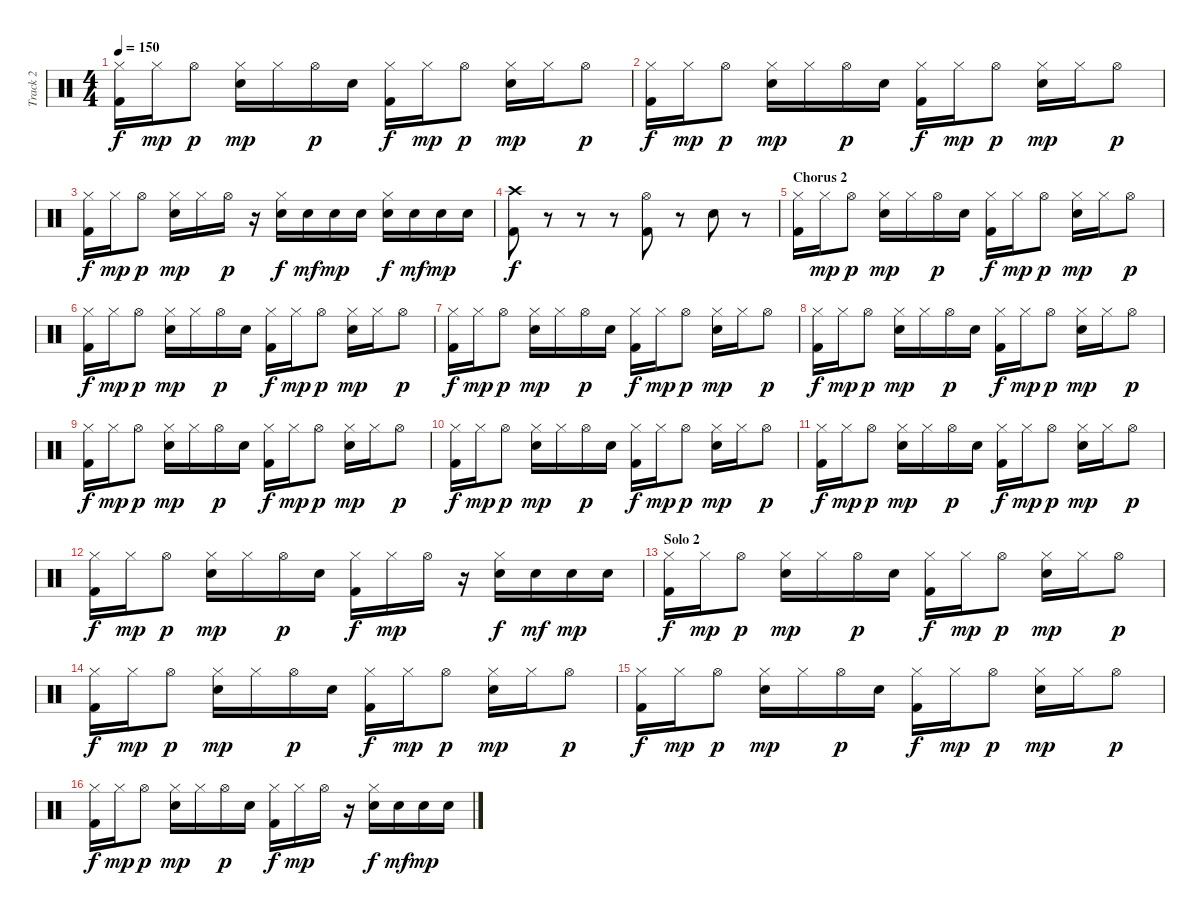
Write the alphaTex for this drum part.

\track ("Track 2" "Track 2") {instrument percussion}
\staff {score}
\articulation defaults
\ts (4 4)
\tempo 150
\clef neutral
\ks c
("Hi-Hat (closed)" "Kick (hit) 2").16{dy f} "Hi-Hat (closed)".16{dy mp} "Hi-Hat (open)".8{dy p} ("Hi-Hat (closed)" "Electric Snare (hit)").16{dy mp} "Hi-Hat (closed)".16 "Hi-Hat (open)".16{dy p} "Electric Snare (hit)".16 ("Hi-Hat (closed)" "Kick (hit) 2").16{dy f} "Hi-Hat (closed)".16{dy mp} "Hi-Hat (open)".8{dy p} ("Hi-Hat (closed)" "Electric Snare (hit)").16{dy mp} "Hi-Hat (closed)".16 "Hi-Hat (open)".8{dy p} |
("Hi-Hat (closed)" "Kick (hit) 2").16{dy f} "Hi-Hat (closed)".16{dy mp} "Hi-Hat (open)".8{dy p} ("Hi-Hat (closed)" "Electric Snare (hit)").16{dy mp} "Hi-Hat (closed)".16 "Hi-Hat (open)".16{dy p} "Electric Snare (hit)".16 ("Hi-Hat (closed)" "Kick (hit) 2").16{dy f} "Hi-Hat (closed)".16{dy mp} "Hi-Hat (open)".8{dy p} ("Hi-Hat (closed)" "Electric Snare (hit)").16{dy mp} "Hi-Hat (closed)".16 "Hi-Hat (open)".8{dy p} |
("Hi-Hat (closed)" "Kick (hit) 2").16{dy f} "Hi-Hat (closed)".16{dy mp} "Hi-Hat (open)".8{dy p} ("Hi-Hat (closed)" "Electric Snare (hit)").16{dy mp} "Hi-Hat (closed)".16 "Hi-Hat (open)".16{dy p} r.16 ("Hi-Hat (closed)" "Electric Snare (hit)").16{dy f} "Electric Snare (hit)".16{dy mf} "Electric Snare (hit)".16{dy mp} "Electric Snare (hit)".16 ("Hi-Hat (closed)" "Electric Snare (hit)").16{dy f} "Electric Snare (hit)".16{dy mf} "Electric Snare (hit)".16{dy mp} "Electric Snare (hit)".16 |
("Crash high (hit)" "Kick (hit) 2").8{dy f} r.8 r.8 r.8 ("Hi-Hat (open)" "Kick (hit) 2").8 r.8 "Electric Snare (hit)".8 r.8 |
\section ("" "Chorus 2")
("Hi-Hat (closed)" "Kick (hit) 2").16 "Hi-Hat (closed)".16{dy mp} "Hi-Hat (open)".8{dy p} ("Hi-Hat (closed)" "Electric Snare (hit)").16{dy mp} "Hi-Hat (closed)".16 "Hi-Hat (open)".16{dy p} "Electric Snare (hit)".16 ("Hi-Hat (closed)" "Kick (hit) 2").16{dy f} "Hi-Hat (closed)".16{dy mp} "Hi-Hat (open)".8{dy p} ("Hi-Hat (closed)" "Electric Snare (hit)").16{dy mp} "Hi-Hat (closed)".16 "Hi-Hat (open)".8{dy p} |
("Hi-Hat (closed)" "Kick (hit) 2").16{dy f} "Hi-Hat (closed)".16{dy mp} "Hi-Hat (open)".8{dy p} ("Hi-Hat (closed)" "Electric Snare (hit)").16{dy mp} "Hi-Hat (closed)".16 "Hi-Hat (open)".16{dy p} "Electric Snare (hit)".16 ("Hi-Hat (closed)" "Kick (hit) 2").16{dy f} "Hi-Hat (closed)".16{dy mp} "Hi-Hat (open)".8{dy p} ("Hi-Hat (closed)" "Electric Snare (hit)").16{dy mp} "Hi-Hat (closed)".16 "Hi-Hat (open)".8{dy p} |
("Hi-Hat (closed)" "Kick (hit) 2").16{dy f} "Hi-Hat (closed)".16{dy mp} "Hi-Hat (open)".8{dy p} ("Hi-Hat (closed)" "Electric Snare (hit)").16{dy mp} "Hi-Hat (closed)".16 "Hi-Hat (open)".16{dy p} "Electric Snare (hit)".16 ("Hi-Hat (closed)" "Kick (hit) 2").16{dy f} "Hi-Hat (closed)".16{dy mp} "Hi-Hat (open)".8{dy p} ("Hi-Hat (closed)" "Electric Snare (hit)").16{dy mp} "Hi-Hat (closed)".16 "Hi-Hat (open)".8{dy p} |
("Hi-Hat (closed)" "Kick (hit) 2").16{dy f} "Hi-Hat (closed)".16{dy mp} "Hi-Hat (open)".8{dy p} ("Hi-Hat (closed)" "Electric Snare (hit)").16{dy mp} "Hi-Hat (closed)".16 "Hi-Hat (open)".16{dy p} "Electric Snare (hit)".16 ("Hi-Hat (closed)" "Kick (hit) 2").16{dy f} "Hi-Hat (closed)".16{dy mp} "Hi-Hat (open)".8{dy p} ("Hi-Hat (closed)" "Electric Snare (hit)").16{dy mp} "Hi-Hat (closed)".16 "Hi-Hat (open)".8{dy p} |
("Hi-Hat (closed)" "Kick (hit) 2").16{dy f} "Hi-Hat (closed)".16{dy mp} "Hi-Hat (open)".8{dy p} ("Hi-Hat (closed)" "Electric Snare (hit)").16{dy mp} "Hi-Hat (closed)".16 "Hi-Hat (open)".16{dy p} "Electric Snare (hit)".16 ("Hi-Hat (closed)" "Kick (hit) 2").16{dy f} "Hi-Hat (closed)".16{dy mp} "Hi-Hat (open)".8{dy p} ("Hi-Hat (closed)" "Electric Snare (hit)").16{dy mp} "Hi-Hat (closed)".16 "Hi-Hat (open)".8{dy p} |
("Hi-Hat (closed)" "Kick (hit) 2").16{dy f} "Hi-Hat (closed)".16{dy mp} "Hi-Hat (open)".8{dy p} ("Hi-Hat (closed)" "Electric Snare (hit)").16{dy mp} "Hi-Hat (closed)".16 "Hi-Hat (open)".16{dy p} "Electric Snare (hit)".16 ("Hi-Hat (closed)" "Kick (hit) 2").16{dy f} "Hi-Hat (closed)".16{dy mp} "Hi-Hat (open)".8{dy p} ("Hi-Hat (closed)" "Electric Snare (hit)").16{dy mp} "Hi-Hat (closed)".16 "Hi-Hat (open)".8{dy p} |
("Hi-Hat (closed)" "Kick (hit) 2").16{dy f} "Hi-Hat (closed)".16{dy mp} "Hi-Hat (open)".8{dy p} ("Hi-Hat (closed)" "Electric Snare (hit)").16{dy mp} "Hi-Hat (closed)".16 "Hi-Hat (open)".16{dy p} "Electric Snare (hit)".16 ("Hi-Hat (closed)" "Kick (hit) 2").16{dy f} "Hi-Hat (closed)".16{dy mp} "Hi-Hat (open)".8{dy p} ("Hi-Hat (closed)" "Electric Snare (hit)").16{dy mp} "Hi-Hat (closed)".16 "Hi-Hat (open)".8{dy p} |
("Hi-Hat (closed)" "Kick (hit) 2").16{dy f} "Hi-Hat (closed)".16{dy mp} "Hi-Hat (open)".8{dy p} ("Hi-Hat (closed)" "Electric Snare (hit)").16{dy mp} "Hi-Hat (closed)".16 "Hi-Hat (open)".16{dy p} "Electric Snare (hit)".16 ("Hi-Hat (closed)" "Kick (hit) 2").16{dy f} "Hi-Hat (closed)".16{dy mp} "Hi-Hat (open)".16 r.16 ("Hi-Hat (closed)" "Electric Snare (hit)").16{dy f} "Electric Snare (hit)".16{dy mf} "Electric Snare (hit)".16{dy mp} "Electric Snare (hit)".16 |
\section ("" "Solo 2")
("Hi-Hat (closed)" "Kick (hit) 2").16{dy f} "Hi-Hat (closed)".16{dy mp} "Hi-Hat (open)".8{dy p} ("Hi-Hat (closed)" "Electric Snare (hit)").16{dy mp} "Hi-Hat (closed)".16 "Hi-Hat (open)".16{dy p} "Electric Snare (hit)".16 ("Hi-Hat (closed)" "Kick (hit) 2").16{dy f} "Hi-Hat (closed)".16{dy mp} "Hi-Hat (open)".8{dy p} ("Hi-Hat (closed)" "Electric Snare (hit)").16{dy mp} "Hi-Hat (closed)".16 "Hi-Hat (open)".8{dy p} |
("Hi-Hat (closed)" "Kick (hit) 2").16{dy f} "Hi-Hat (closed)".16{dy mp} "Hi-Hat (open)".8{dy p} ("Hi-Hat (closed)" "Electric Snare (hit)").16{dy mp} "Hi-Hat (closed)".16 "Hi-Hat (open)".16{dy p} "Electric Snare (hit)".16 ("Hi-Hat (closed)" "Kick (hit) 2").16{dy f} "Hi-Hat (closed)".16{dy mp} "Hi-Hat (open)".8{dy p} ("Hi-Hat (closed)" "Electric Snare (hit)").16{dy mp} "Hi-Hat (closed)".16 "Hi-Hat (open)".8{dy p} |
("Hi-Hat (closed)" "Kick (hit) 2").16{dy f} "Hi-Hat (closed)".16{dy mp} "Hi-Hat (open)".8{dy p} ("Hi-Hat (closed)" "Electric Snare (hit)").16{dy mp} "Hi-Hat (closed)".16 "Hi-Hat (open)".16{dy p} "Electric Snare (hit)".16 ("Hi-Hat (closed)" "Kick (hit) 2").16{dy f} "Hi-Hat (closed)".16{dy mp} "Hi-Hat (open)".8{dy p} ("Hi-Hat (closed)" "Electric Snare (hit)").16{dy mp} "Hi-Hat (closed)".16 "Hi-Hat (open)".8{dy p} |
("Hi-Hat (closed)" "Kick (hit) 2").16{dy f} "Hi-Hat (closed)".16{dy mp} "Hi-Hat (open)".8{dy p} ("Hi-Hat (closed)" "Electric Snare (hit)").16{dy mp} "Hi-Hat (closed)".16 "Hi-Hat (open)".16{dy p} "Electric Snare (hit)".16 ("Hi-Hat (closed)" "Kick (hit) 2").16{dy f} "Hi-Hat (closed)".16{dy mp} "Hi-Hat (open)".16 r.16 ("Hi-Hat (closed)" "Electric Snare (hit)").16{dy f} "Electric Snare (hit)".16{dy mf} "Electric Snare (hit)".16{dy mp} "Electric Snare (hit)".16
